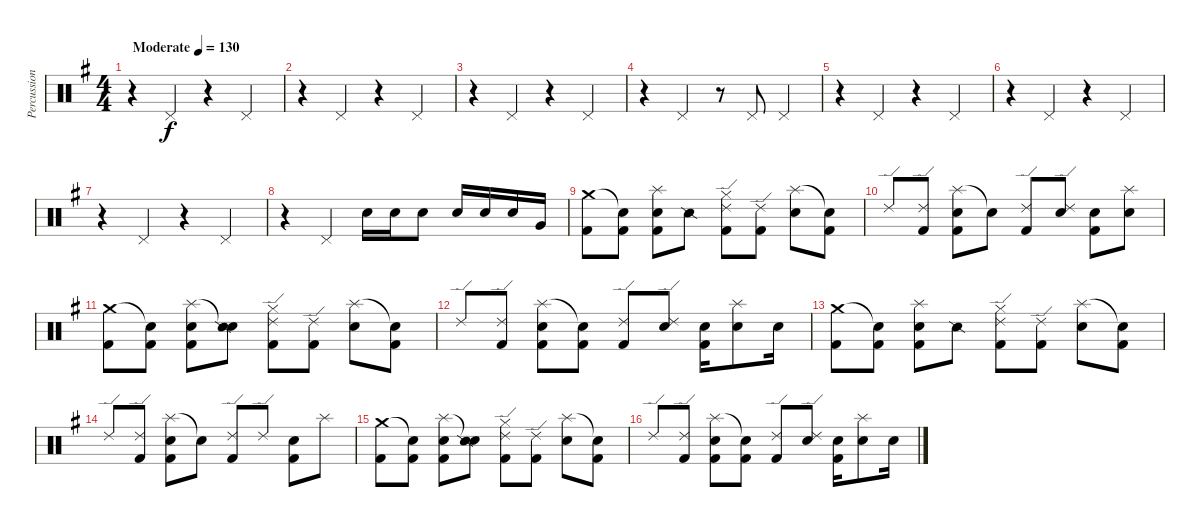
\track ("Percussion" "Percussion") {instrument percussion}
\staff {score}
\articulation defaults
\ts (4 4)
\tempo (130 "Moderate")
\clef neutral
\ks g
r.4{dy f} "Pedal Hi-Hat (hit)".4 r.4 "Pedal Hi-Hat (hit)".4 |
r.4 "Pedal Hi-Hat (hit)".4 r.4 "Pedal Hi-Hat (hit)".4 |
r.4 "Pedal Hi-Hat (hit)".4 r.4 "Pedal Hi-Hat (hit)".4 |
r.4 "Pedal Hi-Hat (hit)".4 r.8 "Pedal Hi-Hat (hit)".8 "Pedal Hi-Hat (hit)".4 |
r.4 "Pedal Hi-Hat (hit)".4 r.4 "Pedal Hi-Hat (hit)".4 |
r.4 "Pedal Hi-Hat (hit)".4 r.4 "Pedal Hi-Hat (hit)".4 |
r.4 "Pedal Hi-Hat (hit)".4 r.4 "Pedal Hi-Hat (hit)".4 |
r.4 "Pedal Hi-Hat (hit)".4 "Electric Snare (hit)".16 "Electric Snare (hit)".16 "Electric Snare (hit)".8 "Electric Snare (hit)".16 "Electric Snare (hit)".16 "Snare (hit) 2".16 "Very Low Tom (hit)".16 |
("Crash medium (hit)" "Kick (hit) 2").8 ("Snare (hit)"{t} "Kick (hit) 2").8 ("Splash (hit)" "Electric Snare (hit)" "Kick (hit) 2").8 "Snare (side stick) 2".8 ("Ride (edge) 2" "Hi-Hat (closed)" "Kick (hit) 2").8 ("Ride (edge) 2" "Kick (hit) 2").8 ("Splash (hit)" "Electric Snare (hit)").8 ("Snare (hit)"{t} "Kick (hit) 2").8 |
"Ride (edge) 2".8 ("Ride (edge) 2" "Kick (hit) 2").8 ("Splash (hit)" "Electric Snare (hit)" "Kick (hit) 2").8 "Snare (hit)"{t}.8 ("Ride (edge) 2" "Kick (hit) 2").8 ("Ride (edge) 2" "Electric Snare (hit)").8 ("Electric Snare (hit)" "Kick (hit) 2").8 ("Splash (hit)" "Electric Snare (hit)").8 |
("Crash medium (hit)" "Kick (hit) 2").8 ("Snare (hit)"{t} "Kick (hit) 2").8 ("Splash (hit)" "Electric Snare (hit)" "Kick (hit) 2").8 ("Snare (hit)"{t} "Snare (side stick) 2").8 ("Ride (edge) 2" "Hi-Hat (closed)" "Kick (hit) 2").8 ("Ride (edge) 2" "Kick (hit) 2").8 ("Splash (hit)" "Electric Snare (hit)").8 ("Snare (hit)"{t} "Kick (hit) 2").8 |
"Ride (edge) 2".8 ("Ride (edge) 2" "Kick (hit) 2").8 ("Splash (hit)" "Electric Snare (hit)" "Kick (hit) 2").8 ("Snare (hit)"{t} "Kick (hit) 2").8 ("Ride (edge) 2" "Kick (hit) 2").8 ("Ride (edge) 2" "Electric Snare (hit)").8 ("Electric Snare (hit)" "Kick (hit) 2").16 ("Splash (hit)" "Electric Snare (hit)").8 "Electric Snare (hit)".16 |
("Crash medium (hit)" "Kick (hit) 2").8 ("Snare (hit)"{t} "Kick (hit) 2").8 ("Splash (hit)" "Electric Snare (hit)" "Kick (hit) 2").8 "Snare (side stick) 2".8 ("Ride (edge) 2" "Hi-Hat (closed)" "Kick (hit) 2").8 ("Ride (edge) 2" "Kick (hit) 2").8 ("Splash (hit)" "Electric Snare (hit)").8 ("Snare (hit)"{t} "Kick (hit) 2").8 |
"Ride (edge) 2".8 ("Ride (edge) 2" "Kick (hit) 2").8 ("Splash (hit)" "Electric Snare (hit)" "Kick (hit) 2").8 "Snare (hit)"{t}.8 ("Ride (edge) 2" "Kick (hit) 2").8 "Ride (edge) 2".8 ("Electric Snare (hit)" "Kick (hit) 2").8 "Splash (hit)".8 |
("Crash medium (hit)" "Kick (hit) 2").8 ("Snare (hit)"{t} "Kick (hit) 2").8 ("Splash (hit)" "Electric Snare (hit)" "Kick (hit) 2").8 ("Snare (hit)"{t} "Snare (side stick) 2").8 ("Ride (edge) 2" "Hi-Hat (closed)" "Kick (hit) 2").8 ("Ride (edge) 2" "Kick (hit) 2").8 ("Splash (hit)" "Electric Snare (hit)").8 ("Snare (hit)"{t} "Kick (hit) 2").8 |
"Ride (edge) 2".8 ("Ride (edge) 2" "Kick (hit) 2").8 ("Splash (hit)" "Electric Snare (hit)" "Kick (hit) 2").8 ("Snare (hit)"{t} "Kick (hit) 2").8 ("Ride (edge) 2" "Kick (hit) 2").8 ("Ride (edge) 2" "Electric Snare (hit)").8 ("Electric Snare (hit)" "Kick (hit) 2").16 ("Splash (hit)" "Electric Snare (hit)").8 "Electric Snare (hit)".16
